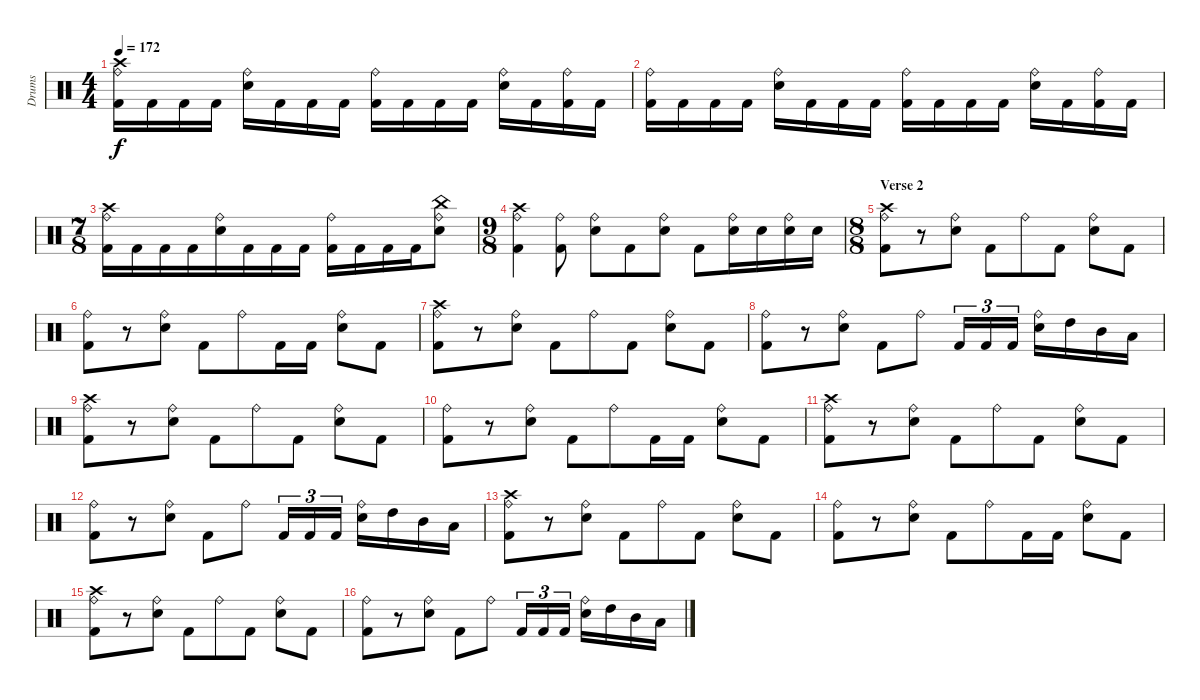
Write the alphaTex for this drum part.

\track ("Drums" "Drums") {instrument percussion}
\staff {score}
\articulation defaults
\ts (4 4)
\tempo 172
\clef neutral
\ks c
("Crash high (hit)" "Ride (bell)" "Kick (hit) 2").16{dy f} "Kick (hit) 2".16 "Kick (hit) 2".16 "Kick (hit) 2".16 ("Ride (bell)" "Electric Snare (hit)").16 "Kick (hit) 2".16 "Kick (hit) 2".16 "Kick (hit) 2".16 ("Ride (bell)" "Kick (hit) 2").16 "Kick (hit) 2".16 "Kick (hit) 2".16 "Kick (hit) 2".16 ("Ride (bell)" "Electric Snare (hit)").16 "Kick (hit) 2".16 ("Ride (bell)" "Kick (hit) 2").16 "Kick (hit) 2".16 |
("Ride (bell)" "Kick (hit) 2").16 "Kick (hit) 2".16 "Kick (hit) 2".16 "Kick (hit) 2".16 ("Ride (bell)" "Electric Snare (hit)").16 "Kick (hit) 2".16 "Kick (hit) 2".16 "Kick (hit) 2".16 ("Ride (bell)" "Kick (hit) 2").16 "Kick (hit) 2".16 "Kick (hit) 2".16 "Kick (hit) 2".16 ("Ride (bell)" "Electric Snare (hit)").16 "Kick (hit) 2".16 ("Ride (bell)" "Kick (hit) 2").16 "Kick (hit) 2".16 |
\ts (7 8)
("Crash high (hit)" "Ride (bell)" "Kick (hit) 2").16 "Kick (hit) 2".16 "Kick (hit) 2".16 "Kick (hit) 2".16 ("Ride (bell)" "Electric Snare (hit)").16 "Kick (hit) 2".16 "Kick (hit) 2".16 "Kick (hit) 2".16 ("Ride (bell)" "Kick (hit) 2").16 "Kick (hit) 2".16 "Kick (hit) 2".16 "Kick (hit) 2".16 ("China (hit)" "Ride (bell)" "Electric Snare (hit)").8 |
\ts (9 8)
("Crash high (hit)" "Ride (bell)" "Kick (hit) 2").4 ("Ride (bell)" "Kick (hit) 2").8 ("Ride (bell)" "Electric Snare (hit)").8 "Kick (hit) 2".8 ("Ride (bell)" "Electric Snare (hit)").8 "Kick (hit) 2".8 ("Ride (bell)" "Electric Snare (hit)").16 "Electric Snare (hit)".16 ("Ride (bell)" "Electric Snare (hit)").16 "Electric Snare (hit)".16 |
\ts (8 8)
\section ("" "Verse 2")
("Crash high (hit)" "Ride (bell)" "Kick (hit) 2").8 r.8 ("Ride (bell)" "Electric Snare (hit)").8 "Kick (hit) 2".8 "Ride (bell)".8 "Kick (hit) 2".8 ("Ride (bell)" "Electric Snare (hit)").8 "Kick (hit) 2".8 |
("Ride (bell)" "Kick (hit) 2").8 r.8 ("Ride (bell)" "Electric Snare (hit)").8 "Kick (hit) 2".8 "Ride (bell)".8 "Kick (hit) 2".16 "Kick (hit) 2".16 ("Ride (bell)" "Electric Snare (hit)").8 "Kick (hit) 2".8 |
("Crash high (hit)" "Ride (bell)" "Kick (hit) 2").8 r.8 ("Ride (bell)" "Electric Snare (hit)").8 "Kick (hit) 2".8 "Ride (bell)".8 "Kick (hit) 2".8 ("Ride (bell)" "Electric Snare (hit)").8 "Kick (hit) 2".8 |
("Ride (bell)" "Kick (hit) 2").8 r.8 ("Ride (bell)" "Electric Snare (hit)").8 "Kick (hit) 2".8 "Ride (bell)".8 "Kick (hit) 2".16{tu (3 2)} "Kick (hit) 2".16{tu (3 2)} "Kick (hit) 2".16{tu (3 2)} ("Ride (bell)" "Electric Snare (hit)").16 "High Tom (hit)".16 "Mid Tom (hit)".16 "Low Tom (hit)".16 |
("Crash high (hit)" "Ride (bell)" "Kick (hit) 2").8 r.8 ("Ride (bell)" "Electric Snare (hit)").8 "Kick (hit) 2".8 "Ride (bell)".8 "Kick (hit) 2".8 ("Ride (bell)" "Electric Snare (hit)").8 "Kick (hit) 2".8 |
("Ride (bell)" "Kick (hit) 2").8 r.8 ("Ride (bell)" "Electric Snare (hit)").8 "Kick (hit) 2".8 "Ride (bell)".8 "Kick (hit) 2".16 "Kick (hit) 2".16 ("Ride (bell)" "Electric Snare (hit)").8 "Kick (hit) 2".8 |
("Crash high (hit)" "Ride (bell)" "Kick (hit) 2").8 r.8 ("Ride (bell)" "Electric Snare (hit)").8 "Kick (hit) 2".8 "Ride (bell)".8 "Kick (hit) 2".8 ("Ride (bell)" "Electric Snare (hit)").8 "Kick (hit) 2".8 |
("Ride (bell)" "Kick (hit) 2").8 r.8 ("Ride (bell)" "Electric Snare (hit)").8 "Kick (hit) 2".8 "Ride (bell)".8 "Kick (hit) 2".16{tu (3 2)} "Kick (hit) 2".16{tu (3 2)} "Kick (hit) 2".16{tu (3 2)} ("Ride (bell)" "Electric Snare (hit)").16 "High Tom (hit)".16 "Mid Tom (hit)".16 "Low Tom (hit)".16 |
("Crash high (hit)" "Ride (bell)" "Kick (hit) 2").8 r.8 ("Ride (bell)" "Electric Snare (hit)").8 "Kick (hit) 2".8 "Ride (bell)".8 "Kick (hit) 2".8 ("Ride (bell)" "Electric Snare (hit)").8 "Kick (hit) 2".8 |
("Ride (bell)" "Kick (hit) 2").8 r.8 ("Ride (bell)" "Electric Snare (hit)").8 "Kick (hit) 2".8 "Ride (bell)".8 "Kick (hit) 2".16 "Kick (hit) 2".16 ("Ride (bell)" "Electric Snare (hit)").8 "Kick (hit) 2".8 |
("Crash high (hit)" "Ride (bell)" "Kick (hit) 2").8 r.8 ("Ride (bell)" "Electric Snare (hit)").8 "Kick (hit) 2".8 "Ride (bell)".8 "Kick (hit) 2".8 ("Ride (bell)" "Electric Snare (hit)").8 "Kick (hit) 2".8 |
("Ride (bell)" "Kick (hit) 2").8 r.8 ("Ride (bell)" "Electric Snare (hit)").8 "Kick (hit) 2".8 "Ride (bell)".8 "Kick (hit) 2".16{tu (3 2)} "Kick (hit) 2".16{tu (3 2)} "Kick (hit) 2".16{tu (3 2)} ("Ride (bell)" "Electric Snare (hit)").16 "High Tom (hit)".16 "Mid Tom (hit)".16 "Low Tom (hit)".16
